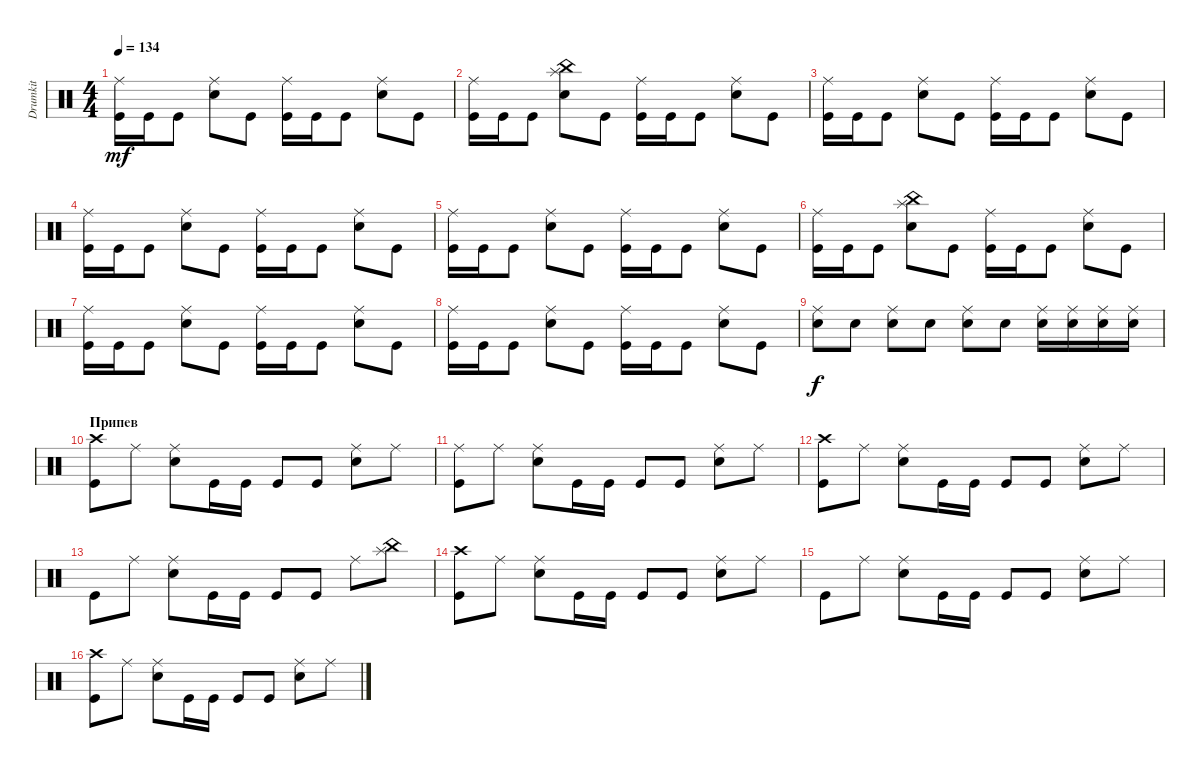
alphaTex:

\track ("Drumkit" "Drumkit") {instrument percussion}
\staff {score}
\articulation defaults
\ts (4 4)
\tempo 134
\clef neutral
\ks c
("Kick (hit)" "Ride (middle)").16{dy mf} "Kick (hit)".16 "Kick (hit)".8 ("Snare (hit) 2" "Ride (middle)").8 "Kick (hit)".8 ("Kick (hit)" "Ride (middle)").16 "Kick (hit)".16 "Kick (hit)".8 ("Snare (hit) 2" "Ride (middle)").8 "Kick (hit)".8 |
("Kick (hit)" "Ride (middle)").16 "Kick (hit)".16 "Kick (hit)".8 ("Snare (hit) 2" "China (hit)" "Splash (hit)").8 "Kick (hit)".8 ("Kick (hit)" "Ride (middle)").16 "Kick (hit)".16 "Kick (hit)".8 ("Snare (hit) 2" "Ride (middle)").8 "Kick (hit)".8 |
("Kick (hit)" "Ride (middle)").16 "Kick (hit)".16 "Kick (hit)".8 ("Snare (hit) 2" "Ride (middle)").8 "Kick (hit)".8 ("Kick (hit)" "Ride (middle)").16 "Kick (hit)".16 "Kick (hit)".8 ("Snare (hit) 2" "Ride (middle)").8 "Kick (hit)".8 |
("Kick (hit)" "Ride (middle)").16 "Kick (hit)".16 "Kick (hit)".8 ("Snare (hit) 2" "Ride (middle)").8 "Kick (hit)".8 ("Kick (hit)" "Ride (middle)").16 "Kick (hit)".16 "Kick (hit)".8 ("Snare (hit) 2" "Ride (middle)").8 "Kick (hit)".8 |
("Kick (hit)" "Ride (middle)").16 "Kick (hit)".16 "Kick (hit)".8 ("Snare (hit) 2" "Ride (middle)").8 "Kick (hit)".8 ("Kick (hit)" "Ride (middle)").16 "Kick (hit)".16 "Kick (hit)".8 ("Snare (hit) 2" "Ride (middle)").8 "Kick (hit)".8 |
("Kick (hit)" "Ride (middle)").16 "Kick (hit)".16 "Kick (hit)".8 ("Snare (hit) 2" "Splash (hit)" "China (hit)").8 "Kick (hit)".8 ("Kick (hit)" "Ride (middle)").16 "Kick (hit)".16 "Kick (hit)".8 ("Snare (hit) 2" "Ride (middle)").8 "Kick (hit)".8 |
("Kick (hit)" "Ride (middle)").16 "Kick (hit)".16 "Kick (hit)".8 ("Snare (hit) 2" "Ride (middle)").8 "Kick (hit)".8 ("Kick (hit)" "Ride (middle)").16 "Kick (hit)".16 "Kick (hit)".8 ("Snare (hit) 2" "Ride (middle)").8 "Kick (hit)".8 |
("Kick (hit)" "Ride (middle)").16 "Kick (hit)".16 "Kick (hit)".8 ("Snare (hit) 2" "Ride (middle)").8 "Kick (hit)".8 ("Kick (hit)" "Ride (middle)").16 "Kick (hit)".16 "Kick (hit)".8 ("Snare (hit) 2" "Ride (middle)").8 "Kick (hit)".8 |
("Snare (hit) 2" "Ride (middle)").8{dy f} "Snare (hit) 2".8 ("Snare (hit) 2" "Ride (middle)").8 "Snare (hit) 2".8 ("Snare (hit) 2" "Ride (middle)").8 "Snare (hit) 2".8 ("Snare (hit) 2" "Ride (middle)").16 ("Snare (hit) 2" "Ride (middle)").16 ("Snare (hit) 2" "Ride (middle)").16 ("Snare (hit) 2" "Ride (middle)").16 |
\section ("" "Припев")
("Crash high (hit)" "Kick (hit)").8 "Ride (middle)".8 ("Snare (hit) 2" "Ride (middle)").8 "Kick (hit)".16 "Kick (hit)".16 "Kick (hit)".8 "Kick (hit)".8 ("Snare (hit) 2" "Ride (middle)").8 "Ride (middle)".8 |
("Kick (hit)" "Ride (middle)").8 "Ride (middle)".8 ("Snare (hit) 2" "Ride (middle)").8 "Kick (hit)".16 "Kick (hit)".16 "Kick (hit)".8 "Kick (hit)".8 ("Snare (hit) 2" "Ride (middle)").8 "Ride (middle)".8 |
("Crash high (hit)" "Kick (hit)").8 "Ride (middle)".8 ("Snare (hit) 2" "Ride (middle)").8 "Kick (hit)".16 "Kick (hit)".16 "Kick (hit)".8 "Kick (hit)".8 ("Snare (hit) 2" "Ride (middle)").8 "Ride (middle)".8 |
"Kick (hit)".8 "Ride (middle)".8 ("Snare (hit) 2" "Ride (middle)").8 "Kick (hit)".16 "Kick (hit)".16 "Kick (hit)".8 "Kick (hit)".8 "Ride (middle)".8 ("Splash (hit)" "China (hit)").8 |
("Crash high (hit)" "Kick (hit)").8 "Ride (middle)".8 ("Snare (hit) 2" "Ride (middle)").8 "Kick (hit)".16 "Kick (hit)".16 "Kick (hit)".8 "Kick (hit)".8 ("Snare (hit) 2" "Ride (middle)").8 "Ride (middle)".8 |
"Kick (hit)".8 "Ride (middle)".8 ("Snare (hit) 2" "Ride (middle)").8 "Kick (hit)".16 "Kick (hit)".16 "Kick (hit)".8 "Kick (hit)".8 ("Snare (hit) 2" "Ride (middle)").8 "Ride (middle)".8 |
("Crash high (hit)" "Kick (hit)").8 "Ride (middle)".8 ("Snare (hit) 2" "Ride (middle)").8 "Kick (hit)".16 "Kick (hit)".16 "Kick (hit)".8 "Kick (hit)".8 ("Snare (hit) 2" "Ride (middle)").8 "Ride (middle)".8
